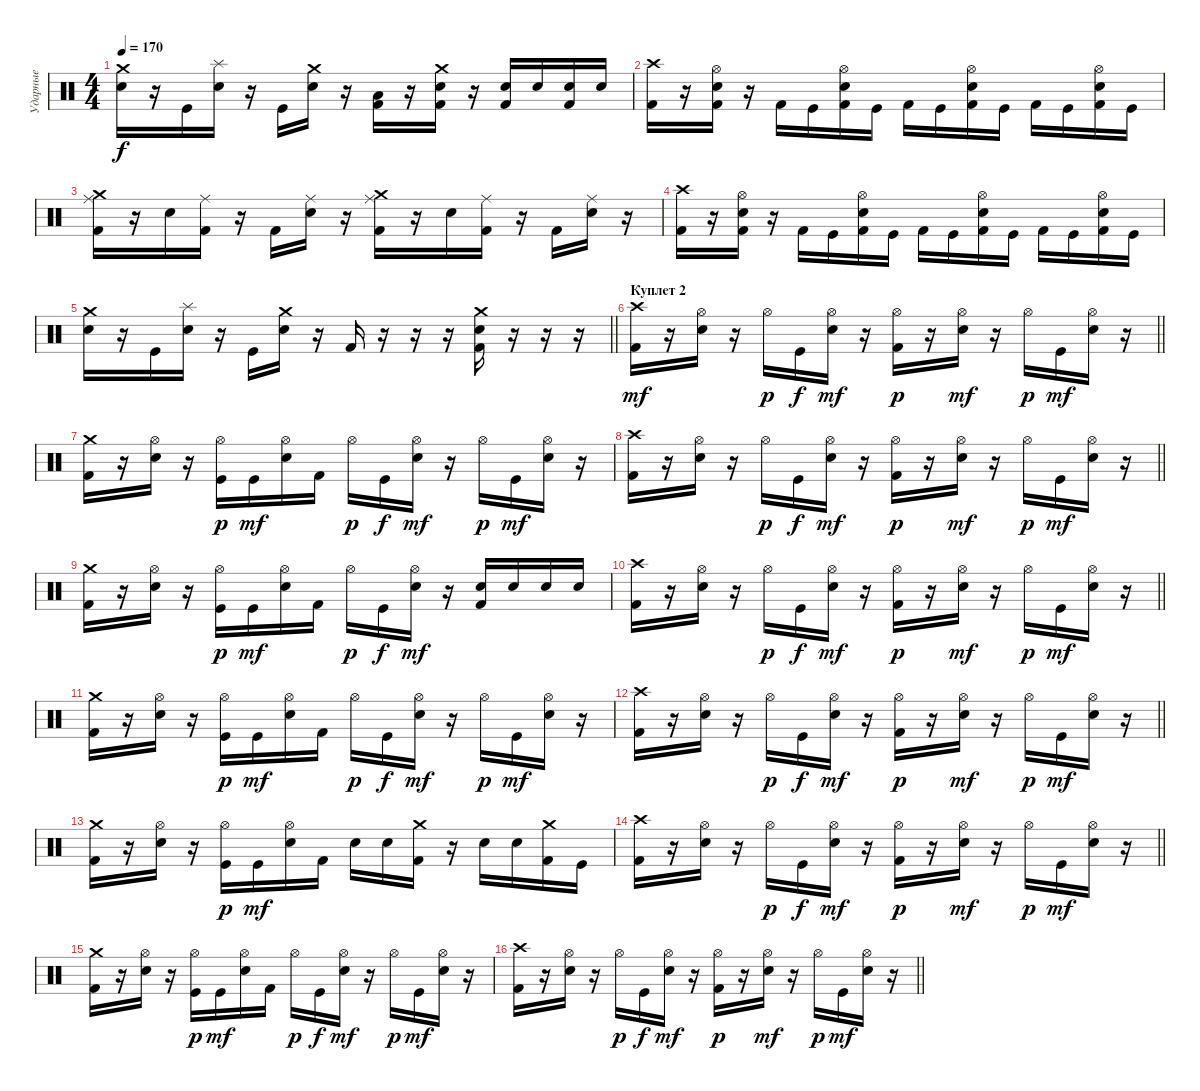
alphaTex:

\track ("Ударные" "Ударные") {instrument percussion}
\staff {score}
\articulation defaults
\ts (4 4)
\tempo 170
\clef neutral
\ks c
("Crash medium (hit)" "Electric Snare (hit)").16{dy f} r.16 "Kick (hit)".16 ("Splash (hit)" "Electric Snare (hit)").16 r.16 "Kick (hit)".16 ("Crash medium (hit)" "Electric Snare (hit)").16 r.16 ("Low Tom (hit)" "Kick (hit) 2").16 r.16 ("Crash medium (hit)" "Electric Snare (hit)" "Kick (hit) 2").16 r.16 ("Electric Snare (hit)" "Kick (hit) 2").16 "Electric Snare (hit)".16 ("Electric Snare (hit)" "Kick (hit) 2").16 "Electric Snare (hit)".16 |
("Crash high (hit)" "Kick (hit) 2").16 r.16 ("Hi-Hat (open)" "Electric Snare (hit)" "Kick (hit) 2").16 r.16 "Kick (hit) 2".16 "Kick (hit)".16 ("Hi-Hat (open)" "Electric Snare (hit)" "Kick (hit) 2").16 "Kick (hit)".16 "Kick (hit) 2".16 "Kick (hit)".16 ("Hi-Hat (open)" "Electric Snare (hit)" "Kick (hit) 2").16 "Kick (hit)".16 "Kick (hit) 2".16 "Kick (hit)".16 ("Hi-Hat (open)" "Electric Snare (hit)" "Kick (hit) 2").16 "Kick (hit)".16 |
("Crash medium (hit)" "Ride (middle)" "Kick (hit) 2").16 r.16 "Electric Snare (hit)".16 ("Ride (middle)" "Kick (hit) 2").16 r.16 "Kick (hit) 2".16 ("Ride (middle)" "Electric Snare (hit)").16 r.16 ("Crash medium (hit)" "Ride (middle)" "Kick (hit) 2").16 r.16 "Electric Snare (hit)".16 ("Ride (middle)" "Kick (hit) 2").16 r.16 "Kick (hit) 2".16 ("Ride (middle)" "Electric Snare (hit)").16 r.16 |
("Crash high (hit)" "Kick (hit) 2").16 r.16 ("Hi-Hat (open)" "Electric Snare (hit)" "Kick (hit) 2").16 r.16 "Kick (hit) 2".16 "Kick (hit)".16 ("Hi-Hat (open)" "Electric Snare (hit)" "Kick (hit) 2").16 "Kick (hit)".16 "Kick (hit) 2".16 "Kick (hit)".16 ("Hi-Hat (open)" "Electric Snare (hit)" "Kick (hit) 2").16 "Kick (hit)".16 "Kick (hit) 2".16 "Kick (hit)".16 ("Hi-Hat (open)" "Electric Snare (hit)" "Kick (hit) 2").16 "Kick (hit)".16 |
\barLineRight lightlight
("Crash medium (hit)" "Electric Snare (hit)").16 r.16 "Kick (hit)".16 ("Splash (hit)" "Electric Snare (hit)").16 r.16 "Kick (hit)".16 ("Crash medium (hit)" "Electric Snare (hit)").16 r.16 "Kick (hit) 2".16 r.16 r.16 r.16 ("Crash medium (hit)" "Electric Snare (hit)" "Kick (hit) 2").16 r.16 r.16 r.16 |
\section ("" "Куплет 2")
\barLineRight lightlight
("Crash high (hit)" "Kick (hit) 2").16{dy mf} r.16 ("Hi-Hat (open)" "Electric Snare (hit)").16 r.16 "Hi-Hat (open)".16{dy p} "Kick (hit)".16{dy f} ("Hi-Hat (open)" "Electric Snare (hit)").16{dy mf} r.16 ("Hi-Hat (open)" "Kick (hit) 2").16{dy p} r.16 ("Hi-Hat (open)" "Electric Snare (hit)").16{dy mf} r.16 "Hi-Hat (open)".16{dy p} "Kick (hit)".16{dy mf} ("Hi-Hat (open)" "Electric Snare (hit)").16 r.16 |
("Crash medium (hit)" "Kick (hit) 2").16 r.16 ("Hi-Hat (open)" "Electric Snare (hit)").16 r.16 ("Hi-Hat (open)" "Kick (hit)").16{dy p} "Kick (hit)".16{dy mf} ("Hi-Hat (open)" "Electric Snare (hit)").16 "Kick (hit) 2".16 "Hi-Hat (open)".16{dy p} "Kick (hit)".16{dy f} ("Hi-Hat (open)" "Electric Snare (hit)").16{dy mf} r.16 "Hi-Hat (open)".16{dy p} "Kick (hit)".16{dy mf} ("Hi-Hat (open)" "Electric Snare (hit)").16 r.16 |
\barLineRight lightlight
("Crash high (hit)" "Kick (hit) 2").16 r.16 ("Hi-Hat (open)" "Electric Snare (hit)").16 r.16 "Hi-Hat (open)".16{dy p} "Kick (hit)".16{dy f} ("Hi-Hat (open)" "Electric Snare (hit)").16{dy mf} r.16 ("Hi-Hat (open)" "Kick (hit) 2").16{dy p} r.16 ("Hi-Hat (open)" "Electric Snare (hit)").16{dy mf} r.16 "Hi-Hat (open)".16{dy p} "Kick (hit)".16{dy mf} ("Hi-Hat (open)" "Electric Snare (hit)").16 r.16 |
("Crash medium (hit)" "Kick (hit) 2").16 r.16 ("Hi-Hat (open)" "Electric Snare (hit)").16 r.16 ("Hi-Hat (open)" "Kick (hit)").16{dy p} "Kick (hit)".16{dy mf} ("Hi-Hat (open)" "Electric Snare (hit)").16 "Kick (hit) 2".16 "Hi-Hat (open)".16{dy p} "Kick (hit)".16{dy f} ("Hi-Hat (open)" "Electric Snare (hit)").16{dy mf} r.16 ("Electric Snare (hit)" "Kick (hit) 2").16 "Electric Snare (hit)".16 "Electric Snare (hit)".16 "Electric Snare (hit)".16 |
\barLineRight lightlight
("Crash high (hit)" "Kick (hit) 2").16 r.16 ("Hi-Hat (open)" "Electric Snare (hit)").16 r.16 "Hi-Hat (open)".16{dy p} "Kick (hit)".16{dy f} ("Hi-Hat (open)" "Electric Snare (hit)").16{dy mf} r.16 ("Hi-Hat (open)" "Kick (hit) 2").16{dy p} r.16 ("Hi-Hat (open)" "Electric Snare (hit)").16{dy mf} r.16 "Hi-Hat (open)".16{dy p} "Kick (hit)".16{dy mf} ("Hi-Hat (open)" "Electric Snare (hit)").16 r.16 |
("Crash medium (hit)" "Kick (hit) 2").16 r.16 ("Hi-Hat (open)" "Electric Snare (hit)").16 r.16 ("Hi-Hat (open)" "Kick (hit)").16{dy p} "Kick (hit)".16{dy mf} ("Hi-Hat (open)" "Electric Snare (hit)").16 "Kick (hit) 2".16 "Hi-Hat (open)".16{dy p} "Kick (hit)".16{dy f} ("Hi-Hat (open)" "Electric Snare (hit)").16{dy mf} r.16 "Hi-Hat (open)".16{dy p} "Kick (hit)".16{dy mf} ("Hi-Hat (open)" "Electric Snare (hit)").16 r.16 |
\barLineRight lightlight
("Crash high (hit)" "Kick (hit) 2").16 r.16 ("Hi-Hat (open)" "Electric Snare (hit)").16 r.16 "Hi-Hat (open)".16{dy p} "Kick (hit)".16{dy f} ("Hi-Hat (open)" "Electric Snare (hit)").16{dy mf} r.16 ("Hi-Hat (open)" "Kick (hit) 2").16{dy p} r.16 ("Hi-Hat (open)" "Electric Snare (hit)").16{dy mf} r.16 "Hi-Hat (open)".16{dy p} "Kick (hit)".16{dy mf} ("Hi-Hat (open)" "Electric Snare (hit)").16 r.16 |
("Crash medium (hit)" "Kick (hit) 2").16 r.16 ("Hi-Hat (open)" "Electric Snare (hit)").16 r.16 ("Hi-Hat (open)" "Kick (hit)").16{dy p} "Kick (hit)".16{dy mf} ("Hi-Hat (open)" "Electric Snare (hit)").16 "Kick (hit) 2".16 "Electric Snare (hit)".16 "Electric Snare (hit)".16 ("Crash medium (hit)" "Kick (hit) 2").16 r.16 "Electric Snare (hit)".16 "Electric Snare (hit)".16 ("Crash medium (hit)" "Kick (hit) 2").16 "Kick (hit)".16 |
\barLineRight lightlight
("Crash high (hit)" "Kick (hit) 2").16 r.16 ("Hi-Hat (open)" "Electric Snare (hit)").16 r.16 "Hi-Hat (open)".16{dy p} "Kick (hit)".16{dy f} ("Hi-Hat (open)" "Electric Snare (hit)").16{dy mf} r.16 ("Hi-Hat (open)" "Kick (hit) 2").16{dy p} r.16 ("Hi-Hat (open)" "Electric Snare (hit)").16{dy mf} r.16 "Hi-Hat (open)".16{dy p} "Kick (hit)".16{dy mf} ("Hi-Hat (open)" "Electric Snare (hit)").16 r.16 |
("Crash medium (hit)" "Kick (hit) 2").16 r.16 ("Hi-Hat (open)" "Electric Snare (hit)").16 r.16 ("Hi-Hat (open)" "Kick (hit)").16{dy p} "Kick (hit)".16{dy mf} ("Hi-Hat (open)" "Electric Snare (hit)").16 "Kick (hit) 2".16 "Hi-Hat (open)".16{dy p} "Kick (hit)".16{dy f} ("Hi-Hat (open)" "Electric Snare (hit)").16{dy mf} r.16 "Hi-Hat (open)".16{dy p} "Kick (hit)".16{dy mf} ("Hi-Hat (open)" "Electric Snare (hit)").16 r.16 |
\barLineRight lightlight
("Crash high (hit)" "Kick (hit) 2").16 r.16 ("Hi-Hat (open)" "Electric Snare (hit)").16 r.16 "Hi-Hat (open)".16{dy p} "Kick (hit)".16{dy f} ("Hi-Hat (open)" "Electric Snare (hit)").16{dy mf} r.16 ("Hi-Hat (open)" "Kick (hit) 2").16{dy p} r.16 ("Hi-Hat (open)" "Electric Snare (hit)").16{dy mf} r.16 "Hi-Hat (open)".16{dy p} "Kick (hit)".16{dy mf} ("Hi-Hat (open)" "Electric Snare (hit)").16 r.16
